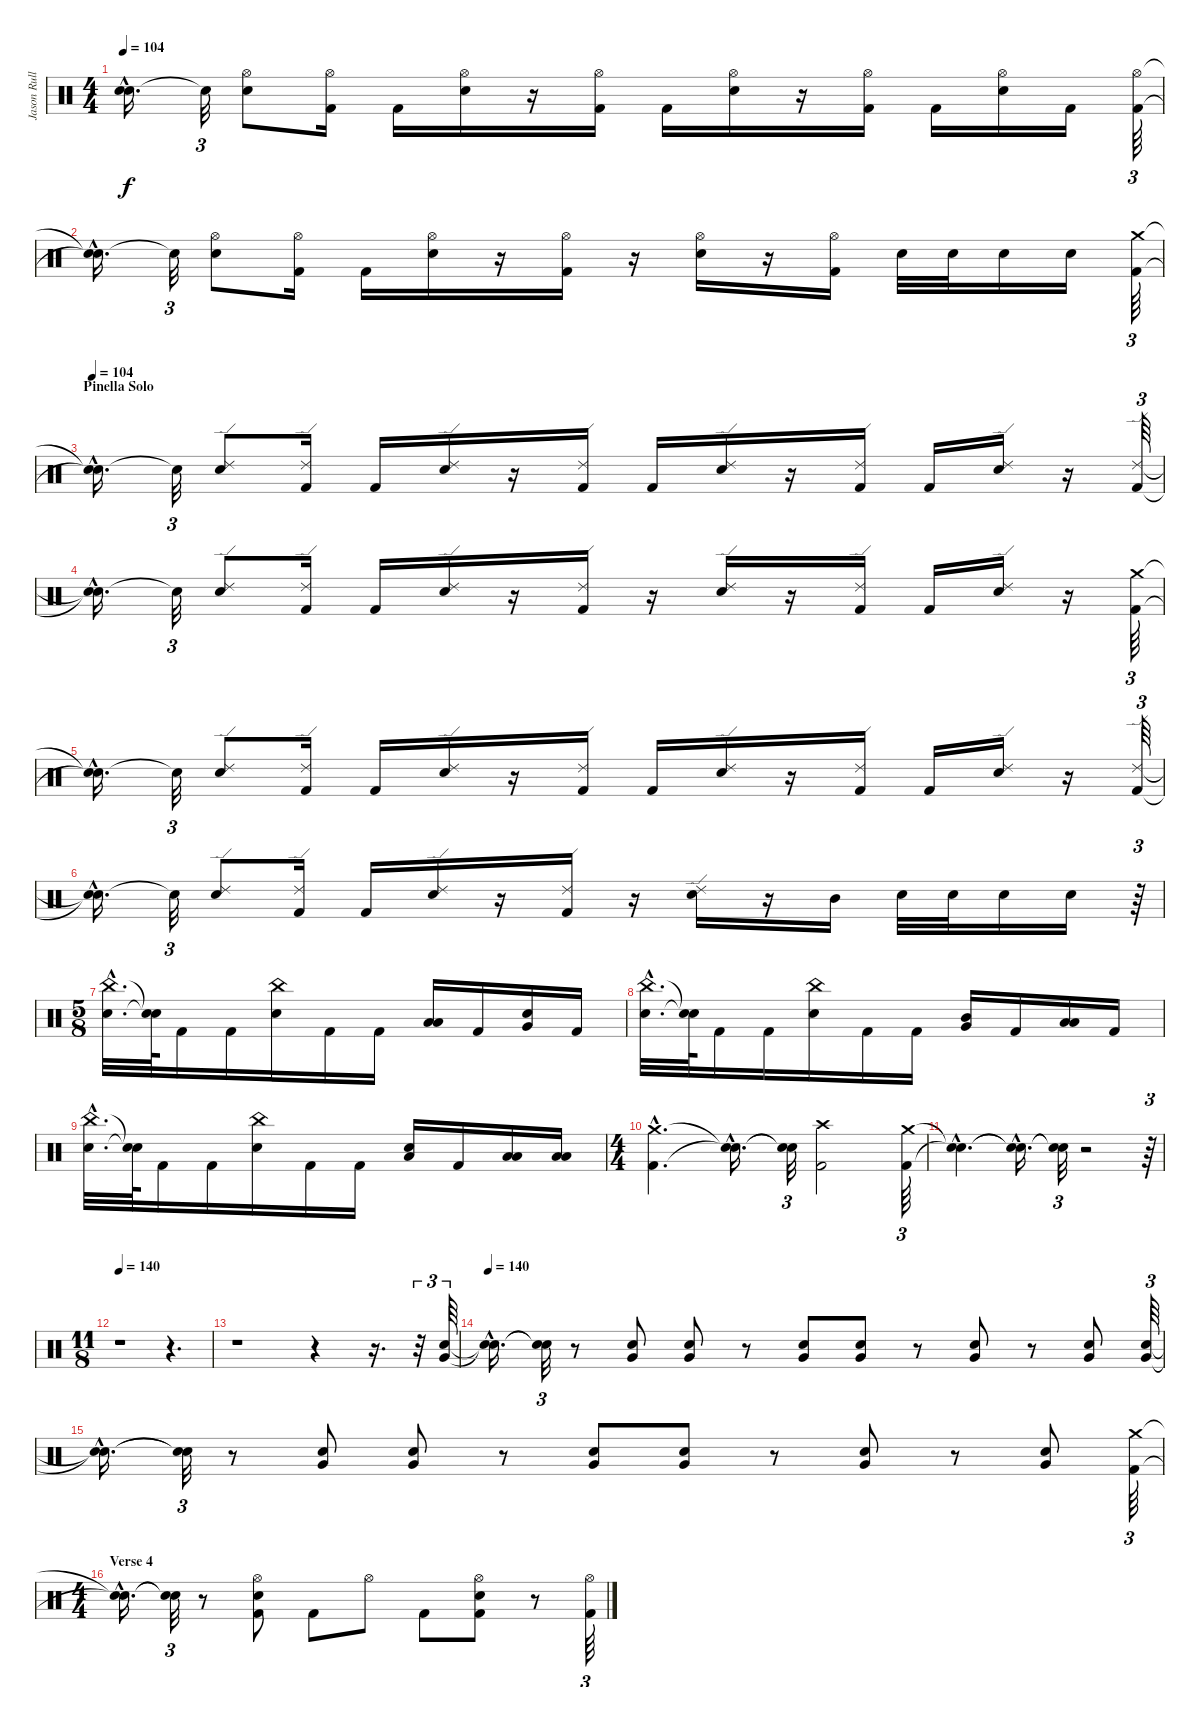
\track ("Jason Rullo" "Jason Rull") {instrument percussion}
\staff {score}
\articulation defaults
\ts (4 4)
\tempo 104
\clef neutral
\ks c
("Snare (hit)"{hac t} "Snare (hit)"{hac t}).16{d dy f} "Snare (hit)"{t}.32{tu (3 2)} ("Hi-Hat (open)" "Electric Snare (hit)").8 ("Hi-Hat (open)" "Kick (hit) 2").16 "Kick (hit) 2".16 ("Hi-Hat (open)" "Electric Snare (hit)").16 r.16 ("Hi-Hat (open)" "Kick (hit) 2").16 "Kick (hit) 2".16 ("Hi-Hat (open)" "Electric Snare (hit)").16 r.16 ("Hi-Hat (open)" "Kick (hit) 2").16 "Kick (hit) 2".16 ("Hi-Hat (open)" "Electric Snare (hit)").16 "Kick (hit) 2".16 ("Hi-Hat (open)" "Kick (hit) 2").64{tu (3 2)} |
("Snare (hit)"{hac t} "Snare (hit)"{hac t}).16{d} "Snare (hit)"{t}.32{tu (3 2)} ("Hi-Hat (open)" "Electric Snare (hit)").8 ("Hi-Hat (open)" "Kick (hit) 2").16 "Kick (hit) 2".16 ("Hi-Hat (open)" "Electric Snare (hit)").16 r.16 ("Hi-Hat (open)" "Kick (hit) 2").16 r.16 ("Hi-Hat (open)" "Electric Snare (hit)").16 r.16 ("Hi-Hat (open)" "Kick (hit) 2").16 "Electric Snare (hit)".32 "Electric Snare (hit)".32 "Electric Snare (hit)".16 "Electric Snare (hit)".16 ("Crash medium (hit)" "Kick (hit) 2").64{tu (3 2)} |
\section ("" "Pinella Solo")
\tempo 104
("Snare (hit)"{hac t} "Snare (hit)"{hac t}).16{d} "Snare (hit)"{t}.32{tu (3 2)} ("Ride (edge) 2" "Electric Snare (hit)").8 ("Ride (edge) 2" "Kick (hit) 2").16 "Kick (hit) 2".16 ("Ride (edge) 2" "Electric Snare (hit)").16 r.16 ("Ride (edge) 2" "Kick (hit) 2").16 "Kick (hit) 2".16 ("Ride (edge) 2" "Electric Snare (hit)").16 r.16 ("Ride (edge) 2" "Kick (hit) 2").16 "Kick (hit) 2".16 ("Ride (edge) 2" "Electric Snare (hit)").16 r.16 ("Ride (edge) 2" "Kick (hit) 2").64{tu (3 2)} |
("Snare (hit)"{hac t} "Snare (hit)"{hac t}).16{d} "Snare (hit)"{t}.32{tu (3 2)} ("Ride (edge) 2" "Electric Snare (hit)").8 ("Ride (edge) 2" "Kick (hit) 2").16 "Kick (hit) 2".16 ("Ride (edge) 2" "Electric Snare (hit)").16 r.16 ("Ride (edge) 2" "Kick (hit) 2").16 r.16 ("Ride (edge) 2" "Electric Snare (hit)").16 r.16 ("Ride (edge) 2" "Kick (hit) 2").16 "Kick (hit) 2".16 ("Ride (edge) 2" "Electric Snare (hit)").16 r.16 ("Crash medium (hit)" "Kick (hit) 2").64{tu (3 2)} |
("Snare (hit)"{hac t} "Snare (hit)"{hac t}).16{d} "Snare (hit)"{t}.32{tu (3 2)} ("Ride (edge) 2" "Electric Snare (hit)").8 ("Ride (edge) 2" "Kick (hit) 2").16 "Kick (hit) 2".16 ("Ride (edge) 2" "Electric Snare (hit)").16 r.16 ("Ride (edge) 2" "Kick (hit) 2").16 "Kick (hit) 2".16 ("Ride (edge) 2" "Electric Snare (hit)").16 r.16 ("Ride (edge) 2" "Kick (hit) 2").16 "Kick (hit) 2".16 ("Ride (edge) 2" "Electric Snare (hit)").16 r.16 ("Ride (edge) 2" "Kick (hit) 2").64{tu (3 2)} |
("Snare (hit)"{hac t} "Snare (hit)"{hac t}).16{d} "Snare (hit)"{t}.32{tu (3 2)} ("Ride (edge) 2" "Electric Snare (hit)").8 ("Ride (edge) 2" "Kick (hit) 2").16 "Kick (hit) 2".16 ("Ride (edge) 2" "Electric Snare (hit)").16 r.16 ("Ride (edge) 2" "Kick (hit) 2").16 r.16 ("Ride (edge) 2" "Electric Snare (hit)").16 r.16 "Mid Tom (hit)".16 "Electric Snare (hit)".32 "Electric Snare (hit)".32 "Electric Snare (hit)".16 "Electric Snare (hit)".16 r.64{tu (3 2)} |
\ts (5 8)
("China (hit)"{hac} "Electric Snare (hit)"{hac}).32{d} ("Snare (hit)"{t} "Snare (hit)"{t}).64 "Kick (hit) 2".16 "Kick (hit) 2".16 ("China (hit)" "Electric Snare (hit)").16 "Kick (hit) 2".16 "Kick (hit) 2".16 ("Low Floor Tom (hit)" "Low Tom (hit)").16 "Kick (hit) 2".16 ("Very Low Tom (hit)" "Electric Snare (hit)").16 "Kick (hit) 2".16 |
("China (hit)"{hac} "Electric Snare (hit)"{hac}).32{d} ("Snare (hit)"{t} "Snare (hit)"{t}).64 "Kick (hit) 2".16 "Kick (hit) 2".16 ("China (hit)" "Electric Snare (hit)").16 "Kick (hit) 2".16 "Kick (hit) 2".16 ("Very Low Tom (hit)" "Mid Tom (hit)").16 "Kick (hit) 2".16 ("Low Floor Tom (hit)" "Low Tom (hit)").16 "Kick (hit) 2".16 |
("China (hit)"{hac} "Electric Snare (hit)"{hac}).32{d} ("Snare (hit)"{t} "Snare (hit)"{t}).64 "Kick (hit) 2".16 "Kick (hit) 2".16 ("China (hit)" "Electric Snare (hit)").16 "Kick (hit) 2".16 "Kick (hit) 2".16 ("Electric Snare (hit)" "Low Tom (hit)").16 "Kick (hit) 2".16 ("Low Floor Tom (hit)" "Low Tom (hit)").16 ("Low Tom (hit)" "Low Floor Tom (hit)").16 |
\ts (4 4)
("Crash medium (hit)"{hac} "Kick (hit) 2"{hac}).4{d} ("Snare (hit)"{hac t} "Snare (hit)"{hac t}).16{d} ("Snare (hit)"{t} "Snare (hit)"{t}).32{tu (3 2)} ("Crash high (hit)" "Kick (hit) 2").2 ("Crash medium (hit)" "Kick (hit) 2").64{tu (3 2)} |
("Snare (hit)"{hac t} "Snare (hit)"{hac t}).4{d} ("Snare (hit)"{hac t} "Snare (hit)"{hac t}).16{d} ("Snare (hit)"{t} "Snare (hit)"{t}).32{tu (3 2)} r.2 r.64{tu (3 2)} |
\ts (11 8)
\tempo 140
r.1 r.4{d} |
r.1 r.4 r.16{d} r.32{tu (3 2)} ("Very Low Tom (hit)" "Electric Snare (hit)").64{tu (3 2) volume 4 balance 8} |
\tempo 140
("Snare (hit)"{hac t} "Snare (hit)"{hac t}).16{d} ("Snare (hit)"{t} "Snare (hit)"{t}).32{tu (3 2)} r.8 ("Very Low Tom (hit)" "Electric Snare (hit)").8{volume 5} ("Very Low Tom (hit)" "Electric Snare (hit)").8{volume 5} r.8 ("Very Low Tom (hit)" "Electric Snare (hit)").8{volume 6} ("Very Low Tom (hit)" "Electric Snare (hit)").8{volume 7} r.8 ("Very Low Tom (hit)" "Electric Snare (hit)").8{volume 8} r.8 ("Very Low Tom (hit)" "Electric Snare (hit)").8{volume 9} ("Very Low Tom (hit)" "Electric Snare (hit)").64{tu (3 2) volume 9} |
("Snare (hit)"{hac t} "Snare (hit)"{hac t}).16{d} ("Snare (hit)"{t} "Snare (hit)"{t}).32{tu (3 2)} r.8 ("Very Low Tom (hit)" "Electric Snare (hit)").8{volume 10} ("Very Low Tom (hit)" "Electric Snare (hit)").8{volume 11} r.8 ("Very Low Tom (hit)" "Electric Snare (hit)").8{volume 12} ("Very Low Tom (hit)" "Electric Snare (hit)").8{volume 12} r.8 ("Very Low Tom (hit)" "Electric Snare (hit)").8{volume 13} r.8 ("Very Low Tom (hit)" "Electric Snare (hit)").8{volume 14} ("Crash medium (hit)" "Kick (hit) 2").64{tu (3 2) volume 15} |
\ts (4 4)
\section ("" "Verse 4")
("Snare (hit)"{hac t} "Snare (hit)"{hac t}).16{d} ("Snare (hit)"{t} "Snare (hit)"{t}).32{tu (3 2)} r.8 ("Hi-Hat (open)" "Electric Snare (hit)" "Kick (hit) 2").8 "Kick (hit) 2".8 "Hi-Hat (open)".8 "Kick (hit) 2".8 ("Hi-Hat (open)" "Kick (hit) 2" "Electric Snare (hit)").8 r.8 ("Hi-Hat (open)" "Kick (hit) 2").64{tu (3 2)}
